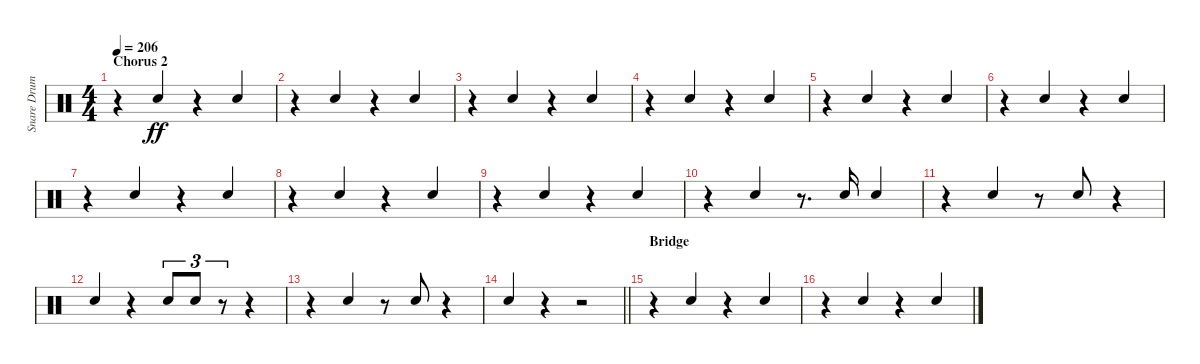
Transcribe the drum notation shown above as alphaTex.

\track ("Snare Drum" "Snare Drum") {instrument percussion}
\staff {score}
\articulation defaults
\ts (4 4)
\section ("" "Chorus 2")
\tempo 206
\clef neutral
\ks c
r.4{dy ff} "Electric Snare (hit)".4{beam Up} r.4 "Electric Snare (hit)".4{beam Up} |
r.4 "Electric Snare (hit)".4{beam Up} r.4 "Electric Snare (hit)".4{beam Up} |
r.4 "Electric Snare (hit)".4{beam Up} r.4 "Electric Snare (hit)".4{beam Up} |
r.4 "Electric Snare (hit)".4{beam Up} r.4 "Electric Snare (hit)".4{beam Up} |
r.4 "Electric Snare (hit)".4{beam Up} r.4 "Electric Snare (hit)".4{beam Up} |
r.4 "Electric Snare (hit)".4{beam Up} r.4 "Electric Snare (hit)".4{beam Up} |
r.4 "Electric Snare (hit)".4{beam Up} r.4 "Electric Snare (hit)".4{beam Up} |
r.4 "Electric Snare (hit)".4{beam Up} r.4 "Electric Snare (hit)".4{beam Up} |
r.4 "Electric Snare (hit)".4{beam Up} r.4 "Electric Snare (hit)".4{beam Up} |
r.4 "Electric Snare (hit)".4{beam Up} r.8{d} "Electric Snare (hit)".16{beam Up} "Electric Snare (hit)".4{beam Up} |
r.4 "Electric Snare (hit)".4{beam Up} r.8 "Electric Snare (hit)".8{beam Up} r.4 |
"Electric Snare (hit)".4{beam Up} r.4{beam Up} "Electric Snare (hit)".8{tu (3 2) beam Up} "Electric Snare (hit)".8{tu (3 2) beam Up} r.8{tu (3 2) beam Up} r.4 |
r.4 "Electric Snare (hit)".4{beam Up} r.8 "Electric Snare (hit)".8{beam Up} r.4 |
\barLineRight lightlight "Electric Snare (hit)".4{beam Up}
r.4 r.2 |
\section ("" "Bridge")
r.4 "Electric Snare (hit)".4{beam Up} r.4 "Electric Snare (hit)".4{beam Up} |
r.4 "Electric Snare (hit)".4{beam Up} r.4 "Electric Snare (hit)".4{beam Up}
